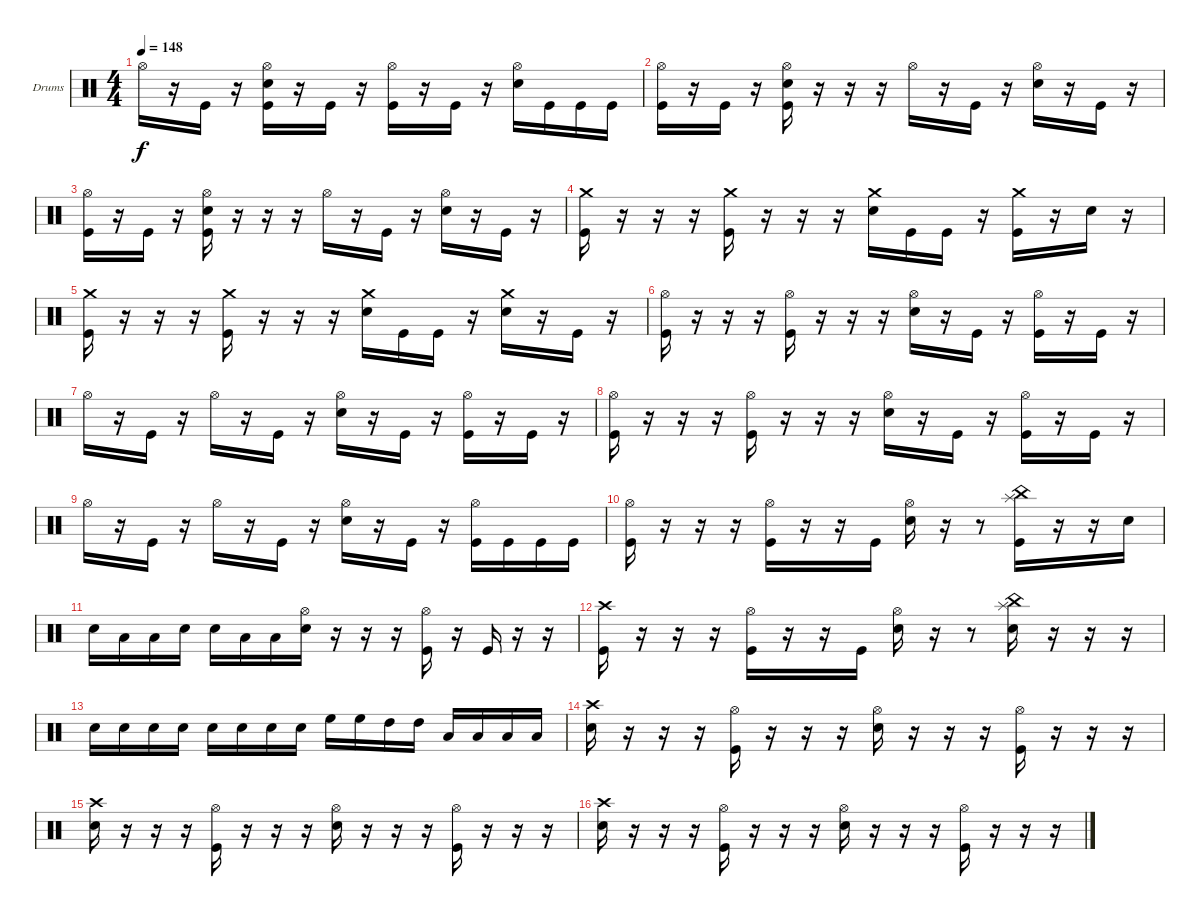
\bracketExtendMode groupsimilarinstruments
\firstSystemTrackNameOrientation horizontal
\otherSystemsTrackNameOrientation horizontal
\track ("Drumkit" "Drums") {instrument percussion}
\staff {score}
\articulation defaults
\ts (4 4)
\tempo 148
\clef neutral
\ks c "Hi-Hat (open)".16{dy f}
r.16 "Kick (hit)".16 r.16 ("Snare (hit) 2" "Kick (hit)" "Hi-Hat (open)").16 r.16 "Kick (hit)".16 r.16 ("Kick (hit)" "Hi-Hat (open)").16 r.16 "Kick (hit)".16 r.16 ("Snare (hit) 2" "Hi-Hat (open)").16 "Kick (hit)".16 "Kick (hit)".16 "Kick (hit)".16 |
("Hi-Hat (open)" "Kick (hit)").16 r.16 "Kick (hit)".16 r.16 ("Hi-Hat (open)" "Snare (hit) 2" "Kick (hit)").16 r.16 r.16 r.16 "Hi-Hat (open)".16 r.16 "Kick (hit)".16 r.16 ("Snare (hit) 2" "Hi-Hat (open)").16 r.16 "Kick (hit)".16 r.16 |
("Hi-Hat (open)" "Kick (hit)").16 r.16 "Kick (hit)".16 r.16 ("Hi-Hat (open)" "Snare (hit) 2" "Kick (hit)").16 r.16 r.16 r.16 "Hi-Hat (open)".16 r.16 "Kick (hit)".16 r.16 ("Snare (hit) 2" "Hi-Hat (open)").16 r.16 "Kick (hit)".16 r.16 |
("Crash medium (hit)" "Kick (hit)").16 r.16 r.16 r.16 ("Crash medium (hit)" "Kick (hit)").16 r.16 r.16 r.16 ("Crash medium (hit)" "Snare (hit) 2").16 "Kick (hit)".16 "Kick (hit)".16 r.16 ("Kick (hit)" "Crash medium (hit)").16 r.16 "Snare (hit) 2".16 r.16 |
("Crash medium (hit)" "Kick (hit)").16 r.16 r.16 r.16 ("Crash medium (hit)" "Kick (hit)").16 r.16 r.16 r.16 ("Crash medium (hit)" "Snare (hit) 2").16 "Kick (hit)".16 "Kick (hit)".16 r.16 ("Snare (hit) 2" "Crash medium (hit)").16 r.16 "Kick (hit)".16 r.16 |
("Hi-Hat (open)" "Kick (hit)").16 r.16 r.16 r.16 ("Hi-Hat (open)" "Kick (hit)").16 r.16 r.16 r.16 ("Hi-Hat (open)" "Snare (hit) 2").16 r.16 "Kick (hit)".16 r.16 ("Kick (hit)" "Hi-Hat (open)").16 r.16 "Kick (hit)".16 r.16 |
"Hi-Hat (open)".16 r.16 "Kick (hit)".16 r.16 "Hi-Hat (open)".16 r.16 "Kick (hit)".16 r.16 ("Snare (hit) 2" "Hi-Hat (open)").16 r.16 "Kick (hit)".16 r.16 ("Kick (hit)" "Hi-Hat (open)").16 r.16 "Kick (hit)".16 r.16 |
("Hi-Hat (open)" "Kick (hit)").16 r.16 r.16 r.16 ("Hi-Hat (open)" "Kick (hit)").16 r.16 r.16 r.16 ("Hi-Hat (open)" "Snare (hit) 2").16 r.16 "Kick (hit)".16 r.16 ("Kick (hit)" "Hi-Hat (open)").16 r.16 "Kick (hit)".16 r.16 |
"Hi-Hat (open)".16 r.16 "Kick (hit)".16 r.16 "Hi-Hat (open)".16 r.16 "Kick (hit)".16 r.16 ("Snare (hit) 2" "Hi-Hat (open)").16 r.16 "Kick (hit)".16 r.16 ("Kick (hit)" "Hi-Hat (open)").16 "Kick (hit)".16 "Kick (hit)".16 "Kick (hit)".16 |
("Kick (hit)" "Hi-Hat (open)").16 r.16 r.16 r.16 ("Kick (hit)" "Hi-Hat (open)").16 r.16 r.16 "Kick (hit)".16 ("Snare (hit) 2" "Hi-Hat (open)").16 r.16 r.8 ("Splash (hit)" "China (hit)" "Kick (hit)").16 r.16 r.16 "Snare (hit) 2".16 |
"Snare (hit) 2".16 "Low Tom (hit)".16 "Low Tom (hit)".16 "Snare (hit) 2".16 "Snare (hit) 2".16 "Low Tom (hit)".16 "Low Tom (hit)".16 ("Snare (hit) 2" "Hi-Hat (open)").16 r.16 r.16 r.16 ("Kick (hit)" "Hi-Hat (open)").16 r.16 "Kick (hit)".16 r.16 r.16 |
("Crash high (hit)" "Kick (hit)").16 r.16 r.16 r.16 ("Kick (hit)" "Hi-Hat (open)").16 r.16 r.16 "Kick (hit)".16 ("Snare (hit) 2" "Hi-Hat (open)").16 r.16 r.8 ("Snare (hit) 2" "China (hit)" "Splash (hit)").16 r.16 r.16 r.16 |
"Snare (hit) 2".16 "Snare (hit) 2".16 "Snare (hit) 2".16 "Snare (hit) 2".16 "Snare (hit) 2".16 "Snare (hit) 2".16 "Snare (hit) 2".16 "Snare (hit) 2".16 "High Floor Tom (hit)".16 "High Floor Tom (hit)".16 "High Tom (hit)".16 "High Tom (hit)".16 "Low Tom (hit)".16 "Low Tom (hit)".16 "Low Tom (hit)".16 "Low Tom (hit)".16 |
("Crash high (hit)" "Snare (hit) 2").16 r.16 r.16 r.16 ("Hi-Hat (open)" "Kick (hit)").16 r.16 r.16 r.16 ("Hi-Hat (open)" "Snare (hit) 2").16 r.16 r.16 r.16 ("Hi-Hat (open)" "Kick (hit)").16 r.16 r.16 r.16 |
("Crash high (hit)" "Snare (hit) 2").16 r.16 r.16 r.16 ("Hi-Hat (open)" "Kick (hit)").16 r.16 r.16 r.16 ("Hi-Hat (open)" "Snare (hit) 2").16 r.16 r.16 r.16 ("Hi-Hat (open)" "Kick (hit)").16 r.16 r.16 r.16 |
("Crash high (hit)" "Snare (hit) 2").16 r.16 r.16 r.16 ("Hi-Hat (open)" "Kick (hit)").16 r.16 r.16 r.16 ("Hi-Hat (open)" "Snare (hit) 2").16 r.16 r.16 r.16 ("Hi-Hat (open)" "Kick (hit)").16 r.16 r.16 r.16
